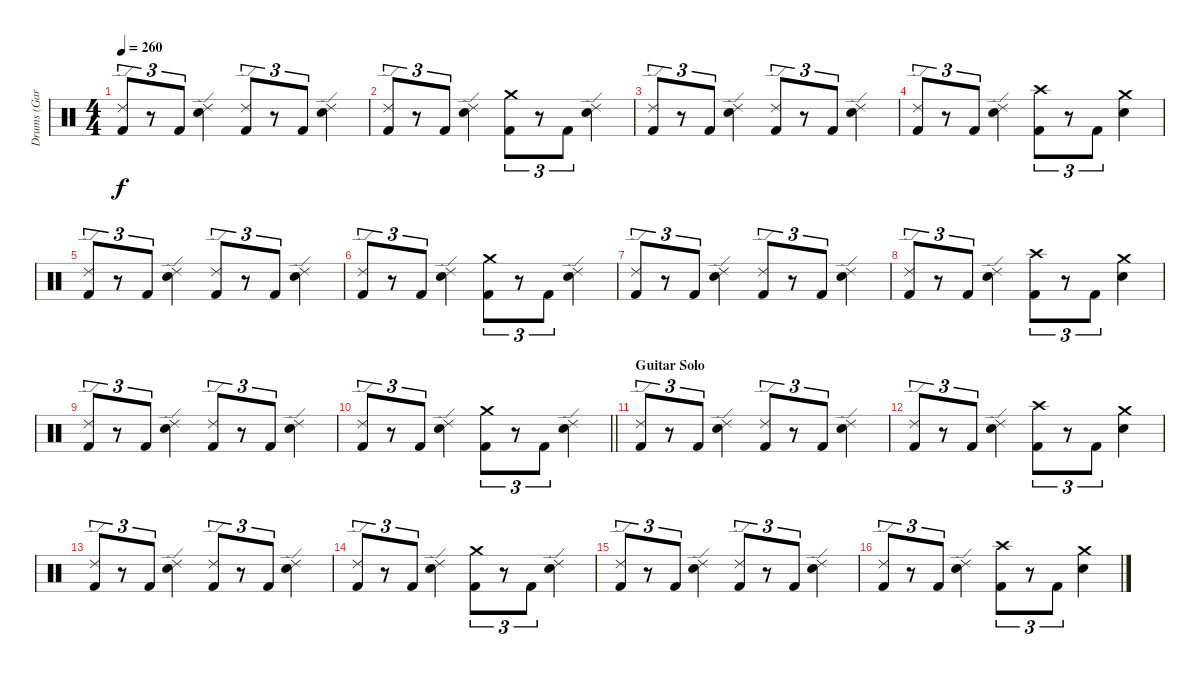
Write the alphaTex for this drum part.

\track ("Drums (Gar Samuelson)" "Drums (Gar") {instrument percussion}
\staff {score}
\articulation defaults
\ts (4 4)
\tempo 260
\clef neutral
\ks c
("Ride (edge) 2" "Kick (hit) 2").8{tu (3 2) dy f} r.8{tu (3 2)} "Kick (hit) 2".8{tu (3 2)} ("Ride (edge) 2" "Snare (hit) 2").4 ("Ride (edge) 2" "Kick (hit) 2").8{tu (3 2)} r.8{tu (3 2)} "Kick (hit) 2".8{tu (3 2)} ("Ride (edge) 2" "Snare (hit) 2").4 |
("Ride (edge) 2" "Kick (hit) 2").8{tu (3 2)} r.8{tu (3 2)} "Kick (hit) 2".8{tu (3 2)} ("Ride (edge) 2" "Snare (hit) 2").4 ("Crash medium (hit)" "Kick (hit) 2").8{tu (3 2)} r.8{tu (3 2)} "Kick (hit) 2".8{tu (3 2)} ("Ride (edge) 2" "Snare (hit) 2").4 |
("Ride (edge) 2" "Kick (hit) 2").8{tu (3 2)} r.8{tu (3 2)} "Kick (hit) 2".8{tu (3 2)} ("Ride (edge) 2" "Snare (hit) 2").4 ("Ride (edge) 2" "Kick (hit) 2").8{tu (3 2)} r.8{tu (3 2)} "Kick (hit) 2".8{tu (3 2)} ("Ride (edge) 2" "Snare (hit) 2").4 |
("Ride (edge) 2" "Kick (hit) 2").8{tu (3 2)} r.8{tu (3 2)} "Kick (hit) 2".8{tu (3 2)} ("Ride (edge) 2" "Snare (hit) 2").4 ("Crash high (hit)" "Kick (hit) 2").8{tu (3 2)} r.8{tu (3 2)} "Kick (hit) 2".8{tu (3 2)} ("Crash medium (hit)" "Snare (hit) 2").4 |
("Ride (edge) 2" "Kick (hit) 2").8{tu (3 2)} r.8{tu (3 2)} "Kick (hit) 2".8{tu (3 2)} ("Ride (edge) 2" "Snare (hit) 2").4 ("Ride (edge) 2" "Kick (hit) 2").8{tu (3 2)} r.8{tu (3 2)} "Kick (hit) 2".8{tu (3 2)} ("Ride (edge) 2" "Snare (hit) 2").4 |
("Ride (edge) 2" "Kick (hit) 2").8{tu (3 2)} r.8{tu (3 2)} "Kick (hit) 2".8{tu (3 2)} ("Ride (edge) 2" "Snare (hit) 2").4 ("Crash medium (hit)" "Kick (hit) 2").8{tu (3 2)} r.8{tu (3 2)} "Kick (hit) 2".8{tu (3 2)} ("Ride (edge) 2" "Snare (hit) 2").4 |
("Ride (edge) 2" "Kick (hit) 2").8{tu (3 2)} r.8{tu (3 2)} "Kick (hit) 2".8{tu (3 2)} ("Ride (edge) 2" "Snare (hit) 2").4 ("Ride (edge) 2" "Kick (hit) 2").8{tu (3 2)} r.8{tu (3 2)} "Kick (hit) 2".8{tu (3 2)} ("Ride (edge) 2" "Snare (hit) 2").4 |
("Ride (edge) 2" "Kick (hit) 2").8{tu (3 2)} r.8{tu (3 2)} "Kick (hit) 2".8{tu (3 2)} ("Ride (edge) 2" "Snare (hit) 2").4 ("Crash high (hit)" "Kick (hit) 2").8{tu (3 2)} r.8{tu (3 2)} "Kick (hit) 2".8{tu (3 2)} ("Crash medium (hit)" "Snare (hit) 2").4 |
("Ride (edge) 2" "Kick (hit) 2").8{tu (3 2)} r.8{tu (3 2)} "Kick (hit) 2".8{tu (3 2)} ("Ride (edge) 2" "Snare (hit) 2").4 ("Ride (edge) 2" "Kick (hit) 2").8{tu (3 2)} r.8{tu (3 2)} "Kick (hit) 2".8{tu (3 2)} ("Ride (edge) 2" "Snare (hit) 2").4 |
\barLineRight lightlight
("Ride (edge) 2" "Kick (hit) 2").8{tu (3 2)} r.8{tu (3 2)} "Kick (hit) 2".8{tu (3 2)} ("Ride (edge) 2" "Snare (hit) 2").4 ("Crash medium (hit)" "Kick (hit) 2").8{tu (3 2)} r.8{tu (3 2)} "Kick (hit) 2".8{tu (3 2)} ("Ride (edge) 2" "Snare (hit) 2").4 |
\section ("" "Guitar Solo")
("Ride (edge) 2" "Kick (hit) 2").8{tu (3 2)} r.8{tu (3 2)} "Kick (hit) 2".8{tu (3 2)} ("Ride (edge) 2" "Snare (hit) 2").4 ("Ride (edge) 2" "Kick (hit) 2").8{tu (3 2)} r.8{tu (3 2)} "Kick (hit) 2".8{tu (3 2)} ("Ride (edge) 2" "Snare (hit) 2").4 |
("Ride (edge) 2" "Kick (hit) 2").8{tu (3 2)} r.8{tu (3 2)} "Kick (hit) 2".8{tu (3 2)} ("Ride (edge) 2" "Snare (hit) 2").4 ("Crash high (hit)" "Kick (hit) 2").8{tu (3 2)} r.8{tu (3 2)} "Kick (hit) 2".8{tu (3 2)} ("Crash medium (hit)" "Snare (hit) 2").4 |
("Ride (edge) 2" "Kick (hit) 2").8{tu (3 2)} r.8{tu (3 2)} "Kick (hit) 2".8{tu (3 2)} ("Ride (edge) 2" "Snare (hit) 2").4 ("Ride (edge) 2" "Kick (hit) 2").8{tu (3 2)} r.8{tu (3 2)} "Kick (hit) 2".8{tu (3 2)} ("Ride (edge) 2" "Snare (hit) 2").4 |
("Ride (edge) 2" "Kick (hit) 2").8{tu (3 2)} r.8{tu (3 2)} "Kick (hit) 2".8{tu (3 2)} ("Ride (edge) 2" "Snare (hit) 2").4 ("Crash medium (hit)" "Kick (hit) 2").8{tu (3 2)} r.8{tu (3 2)} "Kick (hit) 2".8{tu (3 2)} ("Ride (edge) 2" "Snare (hit) 2").4 |
("Ride (edge) 2" "Kick (hit) 2").8{tu (3 2)} r.8{tu (3 2)} "Kick (hit) 2".8{tu (3 2)} ("Ride (edge) 2" "Snare (hit) 2").4 ("Ride (edge) 2" "Kick (hit) 2").8{tu (3 2)} r.8{tu (3 2)} "Kick (hit) 2".8{tu (3 2)} ("Ride (edge) 2" "Snare (hit) 2").4 |
("Ride (edge) 2" "Kick (hit) 2").8{tu (3 2)} r.8{tu (3 2)} "Kick (hit) 2".8{tu (3 2)} ("Ride (edge) 2" "Snare (hit) 2").4 ("Crash high (hit)" "Kick (hit) 2").8{tu (3 2)} r.8{tu (3 2)} "Kick (hit) 2".8{tu (3 2)} ("Crash medium (hit)" "Snare (hit) 2").4
